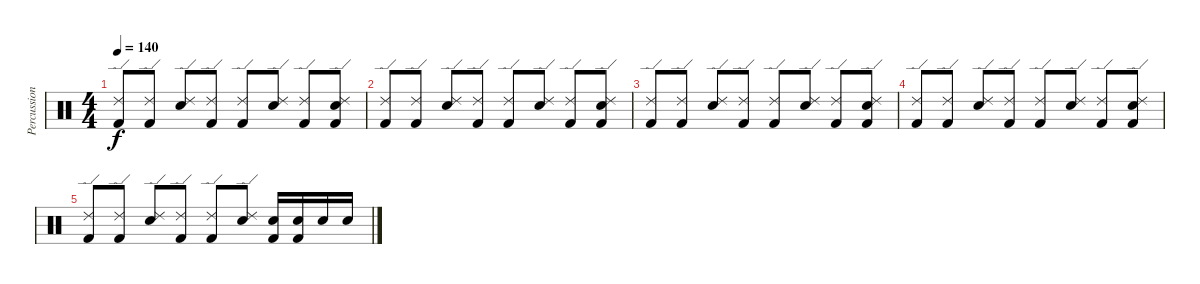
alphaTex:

\track ("Percussion" "Percussion") {instrument percussion}
\staff {score}
\articulation defaults
\ts (4 4)
\tempo 140
\clef neutral
\ks c
("Kick (hit) 2" "Ride (edge) 2").8{dy f} ("Kick (hit) 2" "Ride (edge) 2").8 ("Snare (hit) 2" "Ride (edge) 2").8 ("Kick (hit) 2" "Ride (edge) 2").8 ("Kick (hit) 2" "Ride (edge) 2").8 ("Snare (hit) 2" "Ride (edge) 2").8 ("Kick (hit) 2" "Ride (edge) 2").8 ("Kick (hit) 2" "Snare (hit) 2" "Ride (edge) 2").8 |
("Kick (hit) 2" "Ride (edge) 2").8 ("Kick (hit) 2" "Ride (edge) 2").8 ("Snare (hit) 2" "Ride (edge) 2").8 ("Kick (hit) 2" "Ride (edge) 2").8 ("Kick (hit) 2" "Ride (edge) 2").8 ("Snare (hit) 2" "Ride (edge) 2").8 ("Kick (hit) 2" "Ride (edge) 2").8 ("Kick (hit) 2" "Snare (hit) 2" "Ride (edge) 2").8 |
("Kick (hit) 2" "Ride (edge) 2").8 ("Kick (hit) 2" "Ride (edge) 2").8 ("Snare (hit) 2" "Ride (edge) 2").8 ("Kick (hit) 2" "Ride (edge) 2").8 ("Kick (hit) 2" "Ride (edge) 2").8 ("Snare (hit) 2" "Ride (edge) 2").8 ("Kick (hit) 2" "Ride (edge) 2").8 ("Kick (hit) 2" "Snare (hit) 2" "Ride (edge) 2").8 |
("Kick (hit) 2" "Ride (edge) 2").8 ("Kick (hit) 2" "Ride (edge) 2").8 ("Snare (hit) 2" "Ride (edge) 2").8 ("Kick (hit) 2" "Ride (edge) 2").8 ("Kick (hit) 2" "Ride (edge) 2").8 ("Snare (hit) 2" "Ride (edge) 2").8 ("Kick (hit) 2" "Ride (edge) 2").8 ("Kick (hit) 2" "Snare (hit) 2" "Ride (edge) 2").8 |
("Kick (hit) 2" "Ride (edge) 2").8 ("Kick (hit) 2" "Ride (edge) 2").8 ("Snare (hit) 2" "Ride (edge) 2").8 ("Kick (hit) 2" "Ride (edge) 2").8 ("Kick (hit) 2" "Ride (edge) 2").8 ("Snare (hit) 2" "Ride (edge) 2").8 ("Kick (hit) 2" "Snare (hit) 2").16 ("Kick (hit) 2" "Snare (hit) 2").16 "Snare (hit) 2".16 "Snare (hit) 2".16
